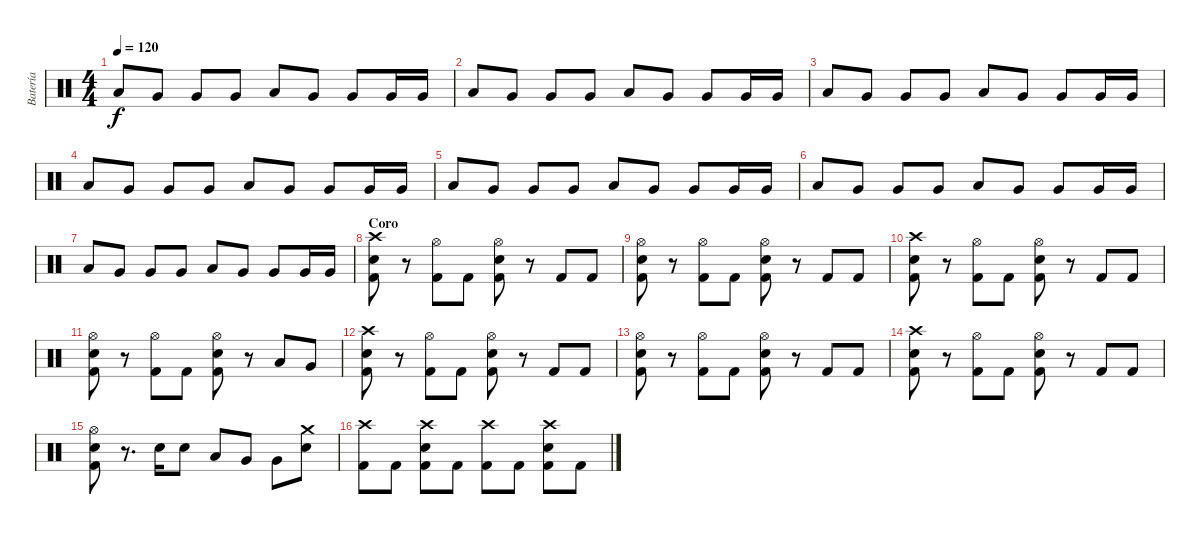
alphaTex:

\track ("Batería" "Batería") {instrument percussion}
\staff {score}
\articulation defaults
\ts (4 4)
\tempo 120
\clef neutral
\ks c "Low Tom (hit)".8{dy f} "Very Low Tom (hit)".8 "Very Low Tom (hit)".8 "Very Low Tom (hit)".8 "Low Tom (hit)".8 "Very Low Tom (hit)".8 "Very Low Tom (hit)".8 "Very Low Tom (hit)".16 "Very Low Tom (hit)".16
|
"Low Tom (hit)".8 "Very Low Tom (hit)".8 "Very Low Tom (hit)".8 "Very Low Tom (hit)".8 "Low Tom (hit)".8 "Very Low Tom (hit)".8 "Very Low Tom (hit)".8 "Very Low Tom (hit)".16 "Very Low Tom (hit)".16 |
"Low Tom (hit)".8 "Very Low Tom (hit)".8 "Very Low Tom (hit)".8 "Very Low Tom (hit)".8 "Low Tom (hit)".8 "Very Low Tom (hit)".8 "Very Low Tom (hit)".8 "Very Low Tom (hit)".16 "Very Low Tom (hit)".16 |
"Low Tom (hit)".8 "Very Low Tom (hit)".8 "Very Low Tom (hit)".8 "Very Low Tom (hit)".8 "Low Tom (hit)".8 "Very Low Tom (hit)".8 "Very Low Tom (hit)".8 "Very Low Tom (hit)".16 "Very Low Tom (hit)".16 |
"Low Tom (hit)".8 "Very Low Tom (hit)".8 "Very Low Tom (hit)".8 "Very Low Tom (hit)".8 "Low Tom (hit)".8 "Very Low Tom (hit)".8 "Very Low Tom (hit)".8 "Very Low Tom (hit)".16 "Very Low Tom (hit)".16 |
"Low Tom (hit)".8 "Very Low Tom (hit)".8 "Very Low Tom (hit)".8 "Very Low Tom (hit)".8 "Low Tom (hit)".8 "Very Low Tom (hit)".8 "Very Low Tom (hit)".8 "Very Low Tom (hit)".16 "Very Low Tom (hit)".16 |
"Low Tom (hit)".8 "Very Low Tom (hit)".8 "Very Low Tom (hit)".8 "Very Low Tom (hit)".8 "Low Tom (hit)".8 "Very Low Tom (hit)".8 "Very Low Tom (hit)".8 "Very Low Tom (hit)".16 "Very Low Tom (hit)".16 |
\section ("" "Coro")
("Crash high (hit)" "Electric Snare (hit)" "Kick (hit) 2").8 r.8 ("Hi-Hat (open)" "Kick (hit) 2").8 "Kick (hit) 2".8 ("Electric Snare (hit)" "Hi-Hat (open)" "Kick (hit) 2").8 r.8 "Kick (hit) 2".8 "Kick (hit) 2".8 |
("Hi-Hat (open)" "Electric Snare (hit)" "Kick (hit) 2").8 r.8 ("Hi-Hat (open)" "Kick (hit) 2").8 "Kick (hit) 2".8 ("Electric Snare (hit)" "Hi-Hat (open)" "Kick (hit) 2").8 r.8 "Kick (hit) 2".8 "Kick (hit) 2".8 |
("Crash high (hit)" "Electric Snare (hit)" "Kick (hit) 2").8 r.8 ("Hi-Hat (open)" "Kick (hit) 2").8 "Kick (hit) 2".8 ("Electric Snare (hit)" "Hi-Hat (open)" "Kick (hit) 2").8 r.8 "Kick (hit) 2".8 "Kick (hit) 2".8 |
("Hi-Hat (open)" "Electric Snare (hit)" "Kick (hit) 2").8 r.8 ("Hi-Hat (open)" "Kick (hit) 2").8 "Kick (hit) 2".8 ("Electric Snare (hit)" "Hi-Hat (open)" "Kick (hit) 2").8 r.8 "Low Tom (hit)".8 "Very Low Tom (hit)".8 |
("Crash high (hit)" "Electric Snare (hit)" "Kick (hit) 2").8 r.8 ("Hi-Hat (open)" "Kick (hit) 2").8 "Kick (hit) 2".8 ("Electric Snare (hit)" "Hi-Hat (open)" "Kick (hit) 2").8 r.8 "Kick (hit) 2".8 "Kick (hit) 2".8 |
("Hi-Hat (open)" "Electric Snare (hit)" "Kick (hit) 2").8 r.8 ("Hi-Hat (open)" "Kick (hit) 2").8 "Kick (hit) 2".8 ("Electric Snare (hit)" "Hi-Hat (open)" "Kick (hit) 2").8 r.8 "Kick (hit) 2".8 "Kick (hit) 2".8 |
("Crash high (hit)" "Electric Snare (hit)" "Kick (hit) 2").8 r.8 ("Hi-Hat (open)" "Kick (hit) 2").8 "Kick (hit) 2".8 ("Electric Snare (hit)" "Hi-Hat (open)" "Kick (hit) 2").8 r.8 "Kick (hit) 2".8 "Kick (hit) 2".8 |
("Hi-Hat (open)" "Electric Snare (hit)" "Kick (hit) 2").8 r.8{d} "Electric Snare (hit)".16 "Electric Snare (hit)".8 "Low Tom (hit)".8 "Very Low Tom (hit)".8 "Very Low Tom (hit)".8 ("Crash medium (hit)" "Electric Snare (hit)").8 |
("Kick (hit) 2" "Crash high (hit)").8 "Kick (hit) 2".8 ("Kick (hit) 2" "Electric Snare (hit)" "Crash high (hit)").8 "Kick (hit) 2".8 ("Kick (hit) 2" "Crash high (hit)").8 "Kick (hit) 2".8 ("Kick (hit) 2" "Electric Snare (hit)" "Crash high (hit)").8 "Kick (hit) 2".8
